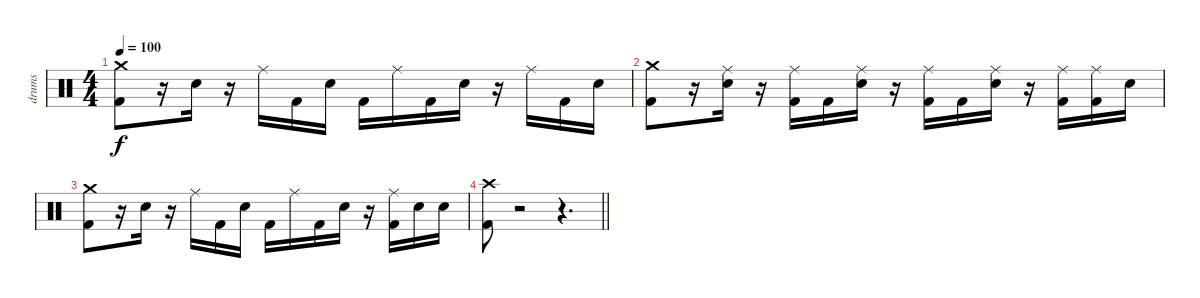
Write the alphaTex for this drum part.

\track ("drums" "drums") {instrument percussion}
\staff {score}
\articulation defaults
\ts (4 4)
\tempo 100
\clef neutral
\ks aminor
("Crash medium (hit)" "Kick (hit) 2").8{dy f} r.16 "Snare (hit) 2".16 r.16 "Ride (middle)".16 "Kick (hit) 2".16 "Snare (hit) 2".16 "Kick (hit) 2".16 "Ride (middle)".16 "Kick (hit) 2".16 "Snare (hit) 2".16 r.16 "Ride (middle)".16 "Kick (hit) 2".16 "Snare (hit) 2".16 |
("Crash medium (hit)" "Kick (hit) 2").8 r.16 ("Ride (middle)" "Snare (hit) 2").16 r.16 ("Ride (middle)" "Kick (hit) 2").16 "Kick (hit) 2".16 ("Ride (middle)" "Snare (hit) 2").16 r.16 ("Ride (middle)" "Kick (hit) 2").16 "Kick (hit) 2".16 ("Ride (middle)" "Snare (hit) 2").16 r.16 ("Ride (middle)" "Kick (hit) 2").16 ("Ride (middle)" "Kick (hit) 2").16 "Snare (hit) 2".16 |
("Crash medium (hit)" "Kick (hit) 2").8 r.16 "Snare (hit) 2".16 r.16 "Ride (middle)".16 "Kick (hit) 2".16 "Snare (hit) 2".16 "Kick (hit) 2".16 "Ride (middle)".16 "Kick (hit) 2".16 "Snare (hit) 2".16 r.16 ("Ride (middle)" "Kick (hit) 2").16 "Snare (hit) 2".16 "Snare (hit) 2".16 |
\barLineRight lightlight
("Crash high (hit)" "Kick (hit) 2").8 r.2 r.4{d}
